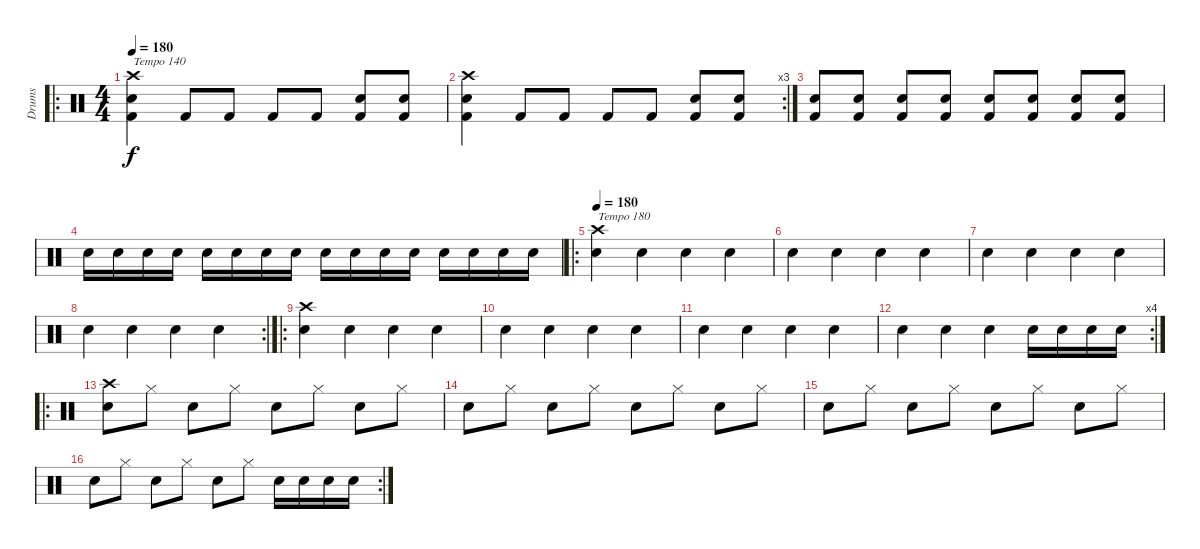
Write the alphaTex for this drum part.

\track ("Drums" "Drums") {instrument percussion}
\staff {score}
\articulation defaults
\ro
\ts (4 4)
\tempo 180
\tempo 140
\tempo 180
\clef neutral
\ks c
("Crash high (hit)" "Snare (hit) 2" "Kick (hit) 2").4{txt "Tempo 140" dy f} "Kick (hit) 2".8 "Kick (hit) 2".8 "Kick (hit) 2".8 "Kick (hit) 2".8 ("Kick (hit) 2" "Snare (hit) 2").8 ("Kick (hit) 2" "Snare (hit) 2").8 |
\rc 3
("Crash high (hit)" "Snare (hit) 2" "Kick (hit) 2").4 "Kick (hit) 2".8 "Kick (hit) 2".8 "Kick (hit) 2".8 "Kick (hit) 2".8 ("Kick (hit) 2" "Snare (hit) 2").8 ("Kick (hit) 2" "Snare (hit) 2").8 |
("Snare (hit) 2" "Kick (hit) 2").8 ("Snare (hit) 2" "Kick (hit) 2").8 ("Snare (hit) 2" "Kick (hit) 2").8 ("Snare (hit) 2" "Kick (hit) 2").8 ("Snare (hit) 2" "Kick (hit) 2").8 ("Snare (hit) 2" "Kick (hit) 2").8 ("Snare (hit) 2" "Kick (hit) 2").8 ("Snare (hit) 2" "Kick (hit) 2").8 |
"Snare (hit) 2".16 "Snare (hit) 2".16 "Snare (hit) 2".16 "Snare (hit) 2".16 "Snare (hit) 2".16 "Snare (hit) 2".16 "Snare (hit) 2".16 "Snare (hit) 2".16 "Snare (hit) 2".16 "Snare (hit) 2".16 "Snare (hit) 2".16 "Snare (hit) 2".16 "Snare (hit) 2".16 "Snare (hit) 2".16 "Snare (hit) 2".16 "Snare (hit) 2".16 |
\ro
\tempo 180
("Crash high (hit)" "Snare (hit) 2").4{txt "Tempo 180"} "Snare (hit) 2".4 "Snare (hit) 2".4 "Snare (hit) 2".4 |
"Snare (hit) 2".4 "Snare (hit) 2".4 "Snare (hit) 2".4 "Snare (hit) 2".4 |
"Snare (hit) 2".4 "Snare (hit) 2".4 "Snare (hit) 2".4 "Snare (hit) 2".4 |
\rc 2 "Snare (hit) 2".4 "Snare (hit) 2".4 "Snare (hit) 2".4 "Snare (hit) 2".4
|
\ro
("Crash high (hit)" "Snare (hit) 2").4 "Snare (hit) 2".4 "Snare (hit) 2".4 "Snare (hit) 2".4 |
"Snare (hit) 2".4 "Snare (hit) 2".4 "Snare (hit) 2".4 "Snare (hit) 2".4 |
"Snare (hit) 2".4 "Snare (hit) 2".4 "Snare (hit) 2".4 "Snare (hit) 2".4 |
\rc 4 "Snare (hit) 2".4 "Snare (hit) 2".4 "Snare (hit) 2".4 "Snare (hit) 2".16 "Snare (hit) 2".16 "Snare (hit) 2".16 "Snare (hit) 2".16
|
\ro
("Crash high (hit)" "Snare (hit) 2").8 "Hi-Hat (closed)".8 "Snare (hit) 2".8 "Hi-Hat (closed)".8 "Snare (hit) 2".8 "Hi-Hat (closed)".8 "Snare (hit) 2".8 "Hi-Hat (closed)".8 |
"Snare (hit) 2".8 "Hi-Hat (closed)".8 "Snare (hit) 2".8 "Hi-Hat (closed)".8 "Snare (hit) 2".8 "Hi-Hat (closed)".8 "Snare (hit) 2".8 "Hi-Hat (closed)".8 |
"Snare (hit) 2".8 "Hi-Hat (closed)".8 "Snare (hit) 2".8 "Hi-Hat (closed)".8 "Snare (hit) 2".8 "Hi-Hat (closed)".8 "Snare (hit) 2".8 "Hi-Hat (closed)".8 |
\rc 2 "Snare (hit) 2".8 "Hi-Hat (closed)".8 "Snare (hit) 2".8 "Hi-Hat (closed)".8 "Snare (hit) 2".8 "Hi-Hat (closed)".8 "Snare (hit) 2".16 "Snare (hit) 2".16 "Snare (hit) 2".16 "Snare (hit) 2".16
